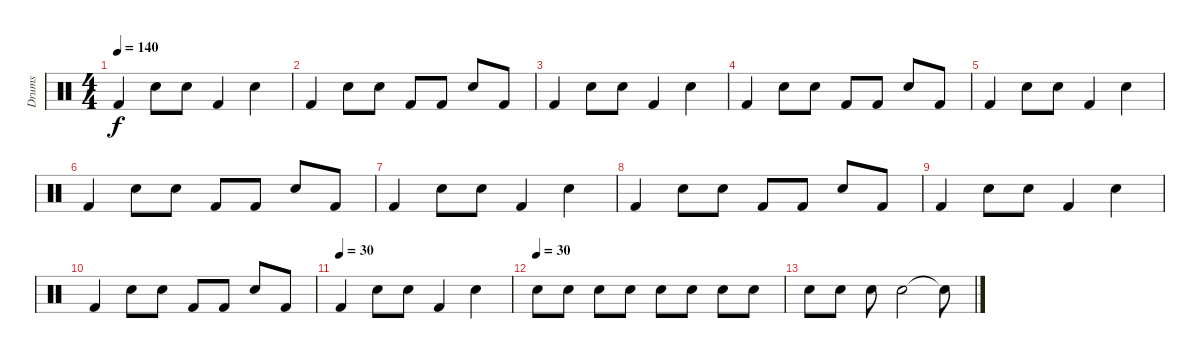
\track ("Drums" "Drums") {instrument percussion}
\staff {score}
\articulation defaults
\ts (4 4)
\tempo 140
\clef neutral
\ks c "Kick (hit) 2".4{dy f} "Snare (hit) 2".8 "Snare (hit) 2".8 "Kick (hit) 2".4 "Snare (hit) 2".4
|
"Kick (hit) 2".4 "Snare (hit) 2".8 "Snare (hit) 2".8 "Kick (hit) 2".8 "Kick (hit) 2".8 "Snare (hit) 2".8 "Kick (hit) 2".8 |
"Kick (hit) 2".4 "Snare (hit) 2".8 "Snare (hit) 2".8 "Kick (hit) 2".4 "Snare (hit) 2".4 |
"Kick (hit) 2".4 "Snare (hit) 2".8 "Snare (hit) 2".8 "Kick (hit) 2".8 "Kick (hit) 2".8 "Snare (hit) 2".8 "Kick (hit) 2".8 |
"Kick (hit) 2".4 "Snare (hit) 2".8 "Snare (hit) 2".8 "Kick (hit) 2".4 "Snare (hit) 2".4 |
"Kick (hit) 2".4 "Snare (hit) 2".8 "Snare (hit) 2".8 "Kick (hit) 2".8 "Kick (hit) 2".8 "Snare (hit) 2".8 "Kick (hit) 2".8 |
"Kick (hit) 2".4 "Snare (hit) 2".8 "Snare (hit) 2".8 "Kick (hit) 2".4 "Snare (hit) 2".4 |
"Kick (hit) 2".4 "Snare (hit) 2".8 "Snare (hit) 2".8 "Kick (hit) 2".8 "Kick (hit) 2".8 "Snare (hit) 2".8 "Kick (hit) 2".8 |
"Kick (hit) 2".4 "Snare (hit) 2".8 "Snare (hit) 2".8 "Kick (hit) 2".4 "Snare (hit) 2".4 |
"Kick (hit) 2".4 "Snare (hit) 2".8 "Snare (hit) 2".8 "Kick (hit) 2".8 "Kick (hit) 2".8 "Snare (hit) 2".8 "Kick (hit) 2".8 |
\tempo (30)
"Kick (hit) 2".4 "Snare (hit) 2".8 "Snare (hit) 2".8 "Kick (hit) 2".4 "Snare (hit) 2".4 |
\tempo (30)
"Snare (hit) 2".8 "Snare (hit) 2".8 "Snare (hit) 2".8 "Snare (hit) 2".8 "Snare (hit) 2".8 "Snare (hit) 2".8 "Snare (hit) 2".8 "Snare (hit) 2".8 |
"Snare (hit) 2".8 "Snare (hit) 2".8 "Snare (hit) 2".8 "Snare (hit) 2".2 "Snare (hit) 2"{t}.8
